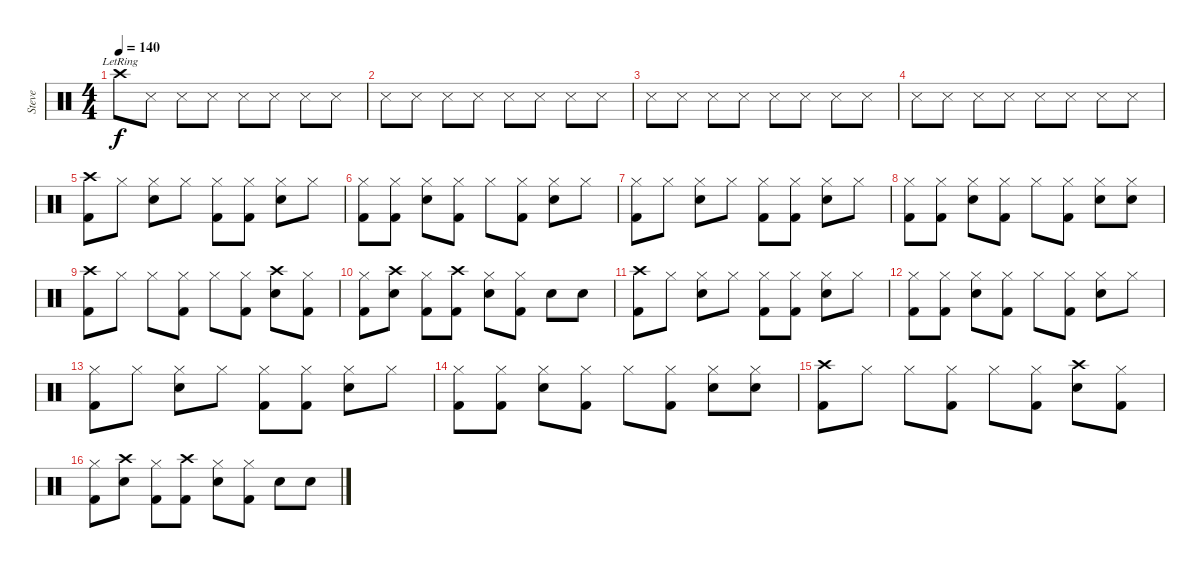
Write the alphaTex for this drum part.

\track ("Steve" "Steve") {instrument percussion}
\staff {score}
\articulation defaults
\ts (4 4)
\tempo 140
\clef neutral
\ks c "Crash high (hit)"{lr}.8{dy f} "Metronome (hit)".8 "Metronome (hit)".8 "Metronome (hit)".8 "Metronome (hit)".8 "Metronome (hit)".8 "Metronome (hit)".8 "Metronome (hit)".8
|
"Metronome (hit)".8 "Metronome (hit)".8 "Metronome (hit)".8 "Metronome (hit)".8 "Metronome (hit)".8 "Metronome (hit)".8 "Metronome (hit)".8 "Metronome (hit)".8 |
"Metronome (hit)".8 "Metronome (hit)".8 "Metronome (hit)".8 "Metronome (hit)".8 "Metronome (hit)".8 "Metronome (hit)".8 "Metronome (hit)".8 "Metronome (hit)".8 |
"Metronome (hit)".8 "Metronome (hit)".8 "Metronome (hit)".8 "Metronome (hit)".8 "Metronome (hit)".8 "Metronome (hit)".8 "Metronome (hit)".8 "Metronome (hit)".8 |
("Crash high (hit)" "Kick (hit) 2").8 "Hi-Hat (closed)".8 ("Hi-Hat (closed)" "Snare (hit) 2").8 "Hi-Hat (closed)".8 ("Hi-Hat (closed)" "Kick (hit) 2").8 ("Hi-Hat (closed)" "Kick (hit) 2").8 ("Hi-Hat (closed)" "Snare (hit) 2").8 "Hi-Hat (closed)".8 |
("Hi-Hat (closed)" "Kick (hit) 2").8 ("Hi-Hat (closed)" "Kick (hit) 2").8 ("Hi-Hat (closed)" "Snare (hit) 2").8 ("Hi-Hat (closed)" "Kick (hit) 2").8 "Hi-Hat (closed)".8 ("Hi-Hat (closed)" "Kick (hit) 2").8 ("Hi-Hat (closed)" "Snare (hit) 2").8 "Hi-Hat (closed)".8 |
("Hi-Hat (closed)" "Kick (hit) 2").8 "Hi-Hat (closed)".8 ("Hi-Hat (closed)" "Snare (hit) 2").8 "Hi-Hat (closed)".8 ("Hi-Hat (closed)" "Kick (hit) 2").8 ("Hi-Hat (closed)" "Kick (hit) 2").8 ("Hi-Hat (closed)" "Snare (hit) 2").8 "Hi-Hat (closed)".8 |
("Hi-Hat (closed)" "Kick (hit) 2").8 ("Hi-Hat (closed)" "Kick (hit) 2").8 ("Hi-Hat (closed)" "Snare (hit) 2").8 ("Hi-Hat (closed)" "Kick (hit) 2").8 "Hi-Hat (closed)".8 ("Hi-Hat (closed)" "Kick (hit) 2").8 ("Hi-Hat (closed)" "Snare (hit) 2").8 ("Hi-Hat (closed)" "Snare (hit) 2").8 |
("Crash high (hit)" "Kick (hit) 2").8 "Hi-Hat (closed)".8 "Hi-Hat (closed)".8 ("Hi-Hat (closed)" "Kick (hit) 2").8 "Hi-Hat (closed)".8 ("Hi-Hat (closed)" "Kick (hit) 2").8 ("Crash high (hit)" "Snare (hit) 2").8 ("Hi-Hat (closed)" "Kick (hit) 2").8 |
("Hi-Hat (closed)" "Kick (hit) 2").8 ("Crash high (hit)" "Snare (hit) 2").8 ("Hi-Hat (closed)" "Kick (hit) 2").8 ("Crash high (hit)" "Kick (hit) 2").8 ("Hi-Hat (closed)" "Snare (hit) 2").8 ("Hi-Hat (closed)" "Kick (hit) 2").8 "Snare (hit) 2".8 "Snare (hit) 2".8 |
("Crash high (hit)" "Kick (hit) 2").8 "Hi-Hat (closed)".8 ("Hi-Hat (closed)" "Snare (hit) 2").8 "Hi-Hat (closed)".8 ("Hi-Hat (closed)" "Kick (hit) 2").8 ("Hi-Hat (closed)" "Kick (hit) 2").8 ("Hi-Hat (closed)" "Snare (hit) 2").8 "Hi-Hat (closed)".8 |
("Hi-Hat (closed)" "Kick (hit) 2").8 ("Hi-Hat (closed)" "Kick (hit) 2").8 ("Hi-Hat (closed)" "Snare (hit) 2").8 ("Hi-Hat (closed)" "Kick (hit) 2").8 "Hi-Hat (closed)".8 ("Hi-Hat (closed)" "Kick (hit) 2").8 ("Hi-Hat (closed)" "Snare (hit) 2").8 "Hi-Hat (closed)".8 |
("Hi-Hat (closed)" "Kick (hit) 2").8 "Hi-Hat (closed)".8 ("Hi-Hat (closed)" "Snare (hit) 2").8 "Hi-Hat (closed)".8 ("Hi-Hat (closed)" "Kick (hit) 2").8 ("Hi-Hat (closed)" "Kick (hit) 2").8 ("Hi-Hat (closed)" "Snare (hit) 2").8 "Hi-Hat (closed)".8 |
("Hi-Hat (closed)" "Kick (hit) 2").8 ("Hi-Hat (closed)" "Kick (hit) 2").8 ("Hi-Hat (closed)" "Snare (hit) 2").8 ("Hi-Hat (closed)" "Kick (hit) 2").8 "Hi-Hat (closed)".8 ("Hi-Hat (closed)" "Kick (hit) 2").8 ("Hi-Hat (closed)" "Snare (hit) 2").8 ("Hi-Hat (closed)" "Snare (hit) 2").8 |
("Crash high (hit)" "Kick (hit) 2").8 "Hi-Hat (closed)".8 "Hi-Hat (closed)".8 ("Hi-Hat (closed)" "Kick (hit) 2").8 "Hi-Hat (closed)".8 ("Hi-Hat (closed)" "Kick (hit) 2").8 ("Crash high (hit)" "Snare (hit) 2").8 ("Hi-Hat (closed)" "Kick (hit) 2").8 |
("Hi-Hat (closed)" "Kick (hit) 2").8 ("Crash high (hit)" "Snare (hit) 2").8 ("Hi-Hat (closed)" "Kick (hit) 2").8 ("Crash high (hit)" "Kick (hit) 2").8 ("Hi-Hat (closed)" "Snare (hit) 2").8 ("Hi-Hat (closed)" "Kick (hit) 2").8 "Snare (hit) 2".8 "Snare (hit) 2".8
